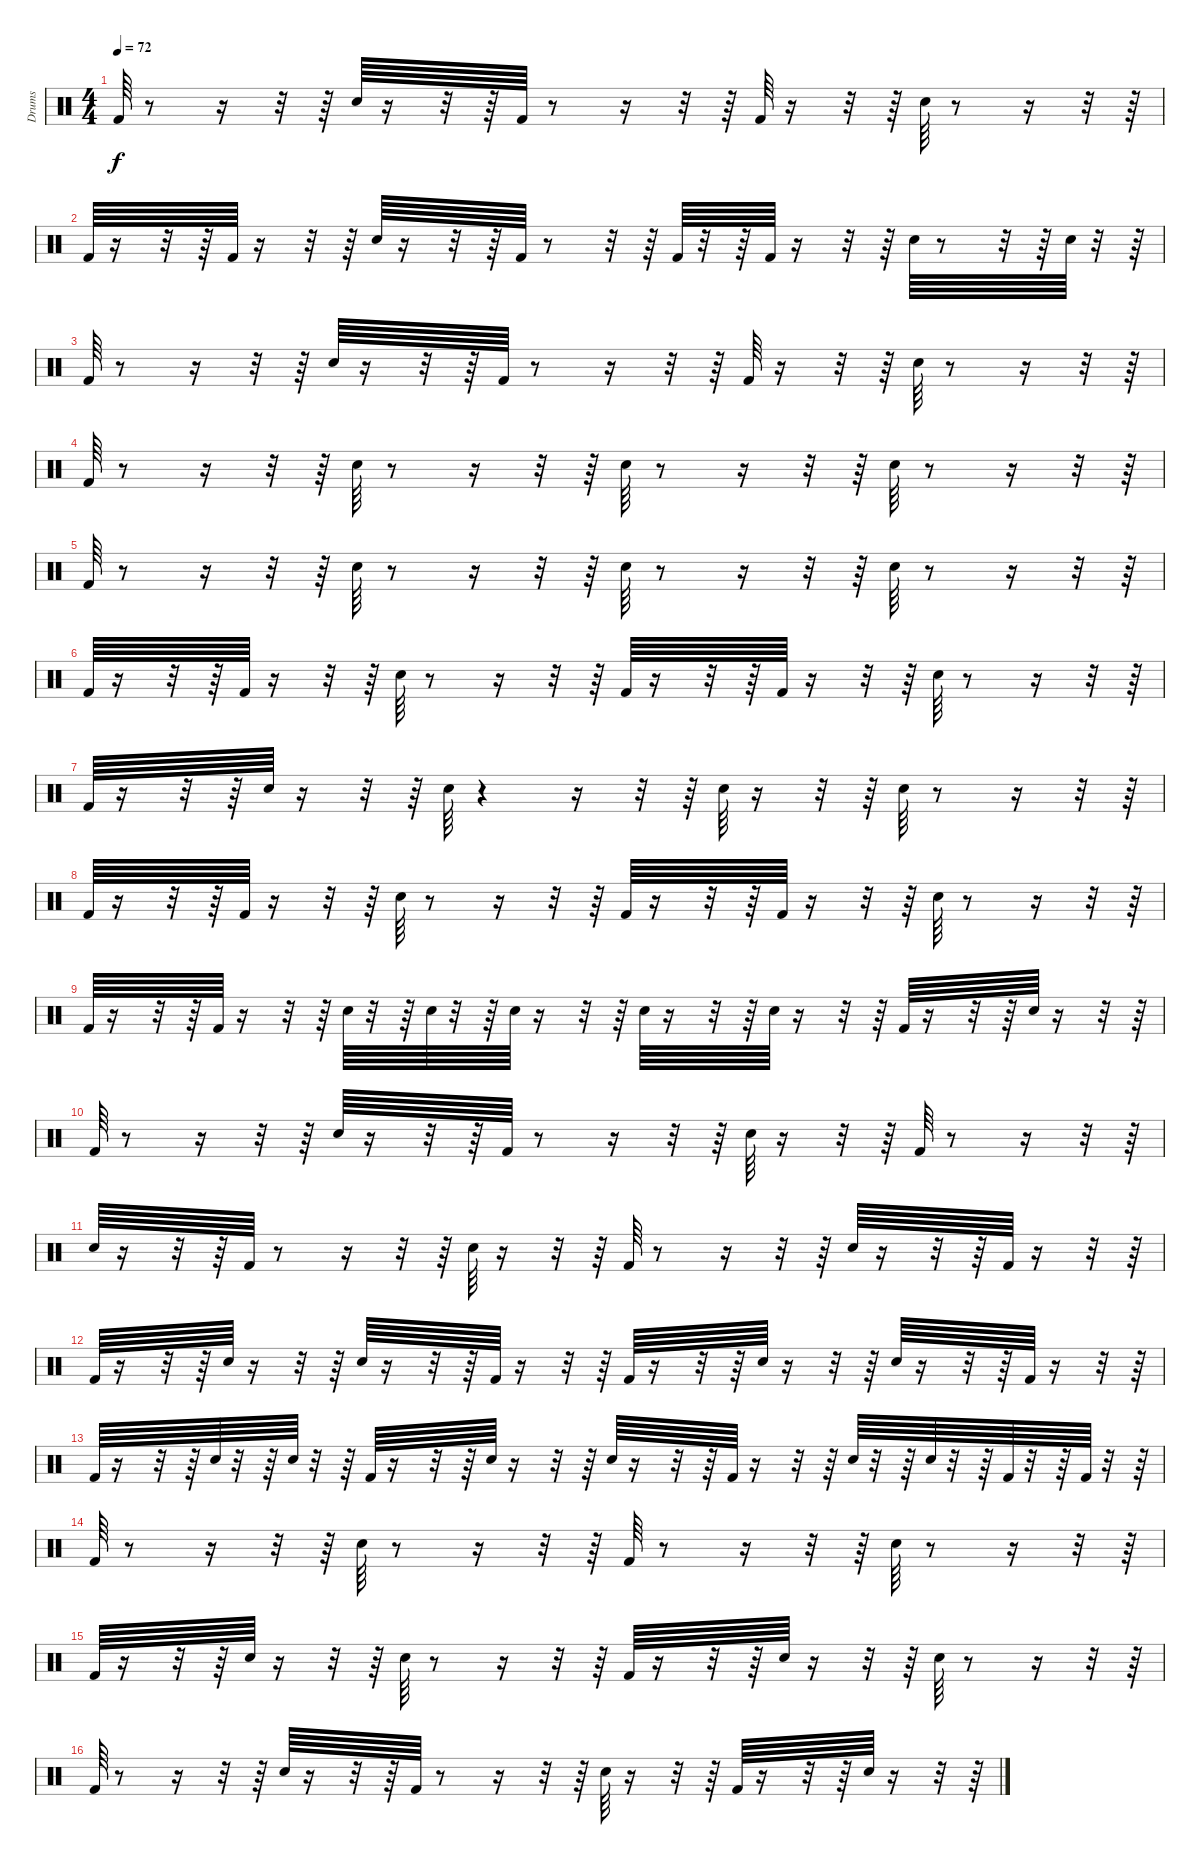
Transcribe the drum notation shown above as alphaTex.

\track ("Drums" "Drums") {instrument percussion}
\staff {score}
\articulation defaults
\ts (4 4)
\tempo 72
\clef neutral
\ks c "Kick (hit) 2".64{dy f}
r.8 r.16 r.32 r.64 "Snare (hit) 2".64 r.16 r.32 r.64 "Kick (hit) 2".64 r.8 r.16 r.32 r.64 "Kick (hit) 2".64 r.16 r.32 r.64 "Snare (hit) 2".64 r.8 r.16 r.32 r.64 |
"Kick (hit) 2".64 r.16 r.32 r.64 "Kick (hit) 2".64 r.16 r.32 r.64 "Snare (hit) 2".64 r.16 r.32 r.64 "Kick (hit) 2".64 r.8 r.32 r.64 "Kick (hit) 2".64 r.32 r.64 "Kick (hit) 2".64 r.16 r.32 r.64 "Snare (hit) 2".64 r.8 r.32 r.64 "Snare (hit) 2".64 r.32 r.64 |
"Kick (hit) 2".64 r.8 r.16 r.32 r.64 "Snare (hit) 2".64 r.16 r.32 r.64 "Kick (hit) 2".64 r.8 r.16 r.32 r.64 "Kick (hit) 2".64 r.16 r.32 r.64 "Snare (hit) 2".64 r.8 r.16 r.32 r.64 |
"Kick (hit) 2".64 r.8 r.16 r.32 r.64 "Snare (hit) 2".64 r.8 r.16 r.32 r.64 "Snare (hit) 2".64 r.8 r.16 r.32 r.64 "Snare (hit) 2".64 r.8 r.16 r.32 r.64 |
"Kick (hit) 2".64 r.8 r.16 r.32 r.64 "Snare (hit) 2".64 r.8 r.16 r.32 r.64 "Snare (hit) 2".64 r.8 r.16 r.32 r.64 "Snare (hit) 2".64 r.8 r.16 r.32 r.64 |
"Kick (hit) 2".64 r.16 r.32 r.64 "Kick (hit) 2".64 r.16 r.32 r.64 "Snare (hit) 2".64 r.8 r.16 r.32 r.64 "Kick (hit) 2".64 r.16 r.32 r.64 "Kick (hit) 2".64 r.16 r.32 r.64 "Snare (hit) 2".64 r.8 r.16 r.32 r.64 |
"Kick (hit) 2".64 r.16 r.32 r.64 "Snare (hit) 2".64 r.16 r.32 r.64 "Snare (hit) 2".64 r.4 r.16 r.32 r.64 "Snare (hit) 2".64 r.16 r.32 r.64 "Snare (hit) 2".64 r.8 r.16 r.32 r.64 |
"Kick (hit) 2".64 r.16 r.32 r.64 "Kick (hit) 2".64 r.16 r.32 r.64 "Snare (hit) 2".64 r.8 r.16 r.32 r.64 "Kick (hit) 2".64 r.16 r.32 r.64 "Kick (hit) 2".64 r.16 r.32 r.64 "Snare (hit) 2".64 r.8 r.16 r.32 r.64 |
"Kick (hit) 2".64 r.16 r.32 r.64 "Kick (hit) 2".64 r.16 r.32 r.64 "Snare (hit) 2".64 r.32 r.64 "Snare (hit) 2".64 r.32 r.64 "Snare (hit) 2".64 r.16 r.32 r.64 "Snare (hit) 2".64 r.16 r.32 r.64 "Snare (hit) 2".64 r.16 r.32 r.64 "Kick (hit) 2".64 r.16 r.32 r.64 "Snare (hit) 2".64 r.16 r.32 r.64 |
"Kick (hit) 2".64 r.8 r.16 r.32 r.64 "Snare (hit) 2".64 r.16 r.32 r.64 "Kick (hit) 2".64 r.8 r.16 r.32 r.64 "Snare (hit) 2".64 r.16 r.32 r.64 "Kick (hit) 2".64 r.8 r.16 r.32 r.64 |
"Snare (hit) 2".64 r.16 r.32 r.64 "Kick (hit) 2".64 r.8 r.16 r.32 r.64 "Snare (hit) 2".64 r.16 r.32 r.64 "Kick (hit) 2".64 r.8 r.16 r.32 r.64 "Snare (hit) 2".64 r.16 r.32 r.64 "Kick (hit) 2".64 r.16 r.32 r.64 |
"Kick (hit) 2".64 r.16 r.32 r.64 "Snare (hit) 2".64 r.16 r.32 r.64 "Snare (hit) 2".64 r.16 r.32 r.64 "Kick (hit) 2".64 r.16 r.32 r.64 "Kick (hit) 2".64 r.16 r.32 r.64 "Snare (hit) 2".64 r.16 r.32 r.64 "Snare (hit) 2".64 r.16 r.32 r.64 "Kick (hit) 2".64 r.16 r.32 r.64 |
"Kick (hit) 2".64 r.16 r.32 r.64 "Snare (hit) 2".64 r.32 r.64 "Snare (hit) 2".64 r.32 r.64 "Kick (hit) 2".64 r.16 r.32 r.64 "Snare (hit) 2".64 r.16 r.32 r.64 "Snare (hit) 2".64 r.16 r.32 r.64 "Kick (hit) 2".64 r.16 r.32 r.64 "Snare (hit) 2".64 r.32 r.64 "Snare (hit) 2".64 r.32 r.64 "Kick (hit) 2".64 r.32 r.64 "Kick (hit) 2".64 r.32 r.64 |
"Kick (hit) 2".64 r.8 r.16 r.32 r.64 "Snare (hit) 2".64 r.8 r.16 r.32 r.64 "Kick (hit) 2".64 r.8 r.16 r.32 r.64 "Snare (hit) 2".64 r.8 r.16 r.32 r.64 |
"Kick (hit) 2".64 r.16 r.32 r.64 "Snare (hit) 2".64 r.16 r.32 r.64 "Snare (hit) 2".64 r.8 r.16 r.32 r.64 "Kick (hit) 2".64 r.16 r.32 r.64 "Snare (hit) 2".64 r.16 r.32 r.64 "Snare (hit) 2".64 r.8 r.16 r.32 r.64 |
"Kick (hit) 2".64 r.8 r.16 r.32 r.64 "Snare (hit) 2".64 r.16 r.32 r.64 "Kick (hit) 2".64 r.8 r.16 r.32 r.64 "Snare (hit) 2".64 r.16 r.32 r.64 "Kick (hit) 2".64 r.16 r.32 r.64 "Snare (hit) 2".64 r.16 r.32 r.64
